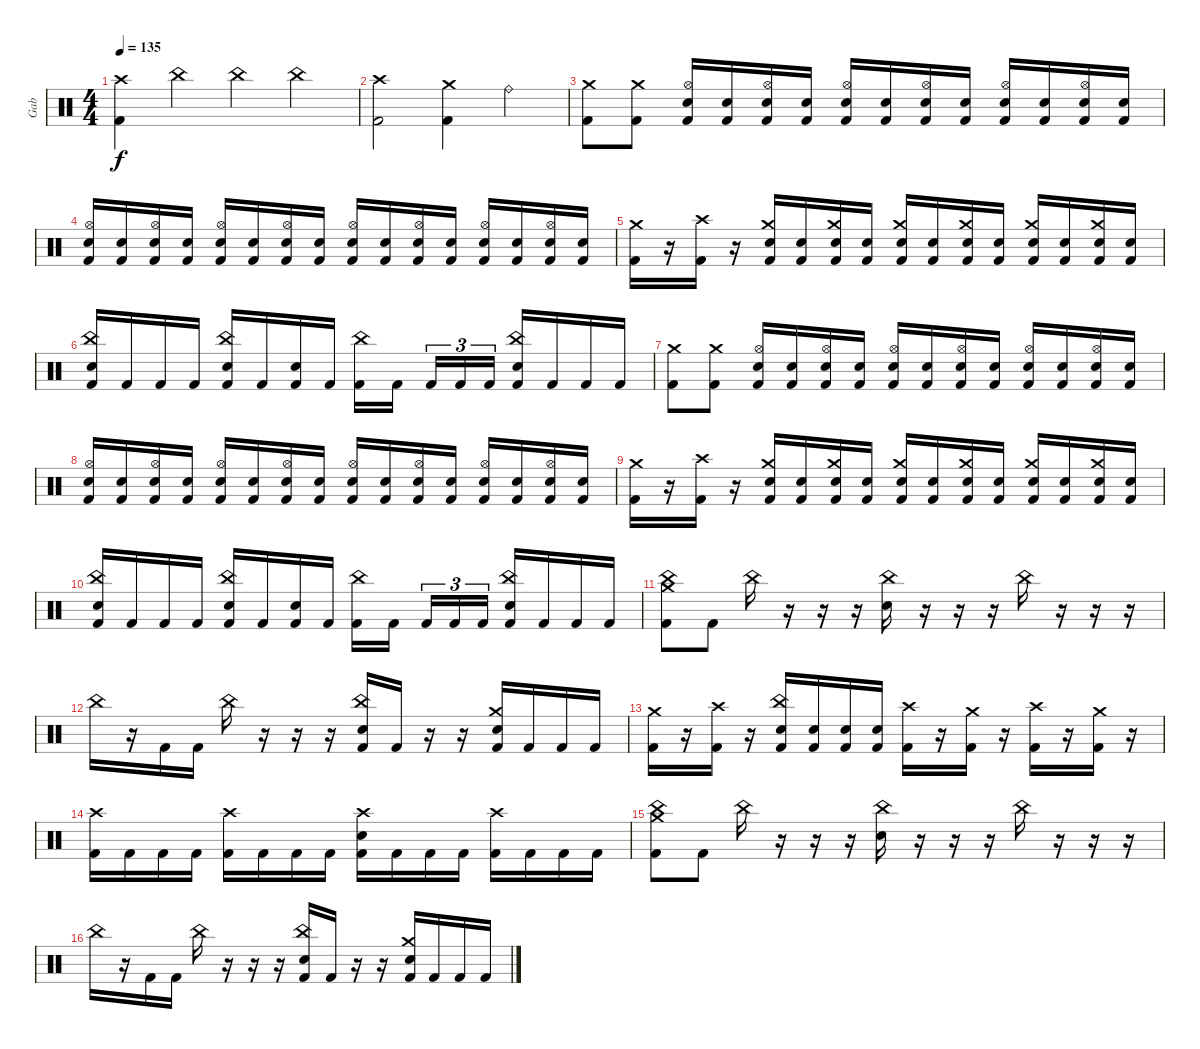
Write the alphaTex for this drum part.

\track ("Gab" "Gab") {instrument percussion}
\staff {score}
\articulation defaults
\ts (4 4)
\tempo 135
\clef neutral
\ks c
("Crash high (hit)" "Kick (hit) 2").4{dy f} "China (hit)".4 "China (hit)".4 "China (hit)".4 |
("Crash high (hit)" "Kick (hit) 2").2 ("Crash medium (hit)" "Kick (hit) 2").4 "Ride (bell)".4 |
("Crash medium (hit)" "Kick (hit) 2").8 ("Crash medium (hit)" "Kick (hit) 2").8 ("Hi-Hat (open)" "Electric Snare (hit)" "Kick (hit) 2").16 ("Electric Snare (hit)" "Kick (hit) 2").16 ("Hi-Hat (open)" "Electric Snare (hit)" "Kick (hit) 2").16 ("Electric Snare (hit)" "Kick (hit) 2").16 ("Hi-Hat (open)" "Electric Snare (hit)" "Kick (hit) 2").16 ("Electric Snare (hit)" "Kick (hit) 2").16 ("Hi-Hat (open)" "Electric Snare (hit)" "Kick (hit) 2").16 ("Electric Snare (hit)" "Kick (hit) 2").16 ("Hi-Hat (open)" "Electric Snare (hit)" "Kick (hit) 2").16 ("Electric Snare (hit)" "Kick (hit) 2").16 ("Hi-Hat (open)" "Electric Snare (hit)" "Kick (hit) 2").16 ("Electric Snare (hit)" "Kick (hit) 2").16 |
("Hi-Hat (open)" "Electric Snare (hit)" "Kick (hit) 2").16 ("Electric Snare (hit)" "Kick (hit) 2").16 ("Hi-Hat (open)" "Electric Snare (hit)" "Kick (hit) 2").16 ("Electric Snare (hit)" "Kick (hit) 2").16 ("Hi-Hat (open)" "Electric Snare (hit)" "Kick (hit) 2").16 ("Electric Snare (hit)" "Kick (hit) 2").16 ("Hi-Hat (open)" "Electric Snare (hit)" "Kick (hit) 2").16 ("Electric Snare (hit)" "Kick (hit) 2").16 ("Hi-Hat (open)" "Electric Snare (hit)" "Kick (hit) 2").16 ("Electric Snare (hit)" "Kick (hit) 2").16 ("Hi-Hat (open)" "Electric Snare (hit)" "Kick (hit) 2").16 ("Electric Snare (hit)" "Kick (hit) 2").16 ("Hi-Hat (open)" "Electric Snare (hit)" "Kick (hit) 2").16 ("Electric Snare (hit)" "Kick (hit) 2").16 ("Hi-Hat (open)" "Electric Snare (hit)" "Kick (hit) 2").16 ("Electric Snare (hit)" "Kick (hit) 2").16 |
("Crash medium (hit)" "Kick (hit) 2").16 r.16 ("Crash high (hit)" "Kick (hit) 2").16 r.16 ("Crash medium (hit)" "Electric Snare (hit)" "Kick (hit) 2").16 ("Electric Snare (hit)" "Kick (hit) 2").16 ("Crash medium (hit)" "Electric Snare (hit)" "Kick (hit) 2").16 ("Electric Snare (hit)" "Kick (hit) 2").16 ("Crash medium (hit)" "Electric Snare (hit)" "Kick (hit) 2").16 ("Electric Snare (hit)" "Kick (hit) 2").16 ("Crash medium (hit)" "Electric Snare (hit)" "Kick (hit) 2").16 ("Electric Snare (hit)" "Kick (hit) 2").16 ("Crash medium (hit)" "Electric Snare (hit)" "Kick (hit) 2").16 ("Electric Snare (hit)" "Kick (hit) 2").16 ("Crash medium (hit)" "Electric Snare (hit)" "Kick (hit) 2").16 ("Electric Snare (hit)" "Kick (hit) 2").16 |
("China (hit)" "Electric Snare (hit)" "Kick (hit) 2").16 "Kick (hit) 2".16 "Kick (hit) 2".16 "Kick (hit) 2".16 ("China (hit)" "Electric Snare (hit)" "Kick (hit) 2").16 "Kick (hit) 2".16 ("Electric Snare (hit)" "Kick (hit) 2").16 "Kick (hit) 2".16 ("China (hit)" "Kick (hit) 2").16 "Kick (hit) 2".16{beam splitsecondary} "Kick (hit) 2".16{tu (3 2)} "Kick (hit) 2".16{tu (3 2)} "Kick (hit) 2".16{tu (3 2)} ("China (hit)" "Electric Snare (hit)" "Kick (hit) 2").16 "Kick (hit) 2".16 "Kick (hit) 2".16 "Kick (hit) 2".16 |
("Crash medium (hit)" "Kick (hit) 2").8 ("Crash medium (hit)" "Kick (hit) 2").8 ("Hi-Hat (open)" "Electric Snare (hit)" "Kick (hit) 2").16 ("Electric Snare (hit)" "Kick (hit) 2").16 ("Hi-Hat (open)" "Electric Snare (hit)" "Kick (hit) 2").16 ("Electric Snare (hit)" "Kick (hit) 2").16 ("Hi-Hat (open)" "Electric Snare (hit)" "Kick (hit) 2").16 ("Electric Snare (hit)" "Kick (hit) 2").16 ("Hi-Hat (open)" "Electric Snare (hit)" "Kick (hit) 2").16 ("Electric Snare (hit)" "Kick (hit) 2").16 ("Hi-Hat (open)" "Electric Snare (hit)" "Kick (hit) 2").16 ("Electric Snare (hit)" "Kick (hit) 2").16 ("Hi-Hat (open)" "Electric Snare (hit)" "Kick (hit) 2").16 ("Electric Snare (hit)" "Kick (hit) 2").16 |
("Hi-Hat (open)" "Electric Snare (hit)" "Kick (hit) 2").16 ("Electric Snare (hit)" "Kick (hit) 2").16 ("Hi-Hat (open)" "Electric Snare (hit)" "Kick (hit) 2").16 ("Electric Snare (hit)" "Kick (hit) 2").16 ("Hi-Hat (open)" "Electric Snare (hit)" "Kick (hit) 2").16 ("Electric Snare (hit)" "Kick (hit) 2").16 ("Hi-Hat (open)" "Electric Snare (hit)" "Kick (hit) 2").16 ("Electric Snare (hit)" "Kick (hit) 2").16 ("Hi-Hat (open)" "Electric Snare (hit)" "Kick (hit) 2").16 ("Electric Snare (hit)" "Kick (hit) 2").16 ("Hi-Hat (open)" "Electric Snare (hit)" "Kick (hit) 2").16 ("Electric Snare (hit)" "Kick (hit) 2").16 ("Hi-Hat (open)" "Electric Snare (hit)" "Kick (hit) 2").16 ("Electric Snare (hit)" "Kick (hit) 2").16 ("Hi-Hat (open)" "Electric Snare (hit)" "Kick (hit) 2").16 ("Electric Snare (hit)" "Kick (hit) 2").16 |
("Crash medium (hit)" "Kick (hit) 2").16 r.16 ("Crash high (hit)" "Kick (hit) 2").16 r.16 ("Crash medium (hit)" "Electric Snare (hit)" "Kick (hit) 2").16 ("Electric Snare (hit)" "Kick (hit) 2").16 ("Crash medium (hit)" "Electric Snare (hit)" "Kick (hit) 2").16 ("Electric Snare (hit)" "Kick (hit) 2").16 ("Crash medium (hit)" "Electric Snare (hit)" "Kick (hit) 2").16 ("Electric Snare (hit)" "Kick (hit) 2").16 ("Crash medium (hit)" "Electric Snare (hit)" "Kick (hit) 2").16 ("Electric Snare (hit)" "Kick (hit) 2").16 ("Crash medium (hit)" "Electric Snare (hit)" "Kick (hit) 2").16 ("Electric Snare (hit)" "Kick (hit) 2").16 ("Crash medium (hit)" "Electric Snare (hit)" "Kick (hit) 2").16 ("Electric Snare (hit)" "Kick (hit) 2").16 |
("China (hit)" "Electric Snare (hit)" "Kick (hit) 2").16 "Kick (hit) 2".16 "Kick (hit) 2".16 "Kick (hit) 2".16 ("China (hit)" "Electric Snare (hit)" "Kick (hit) 2").16 "Kick (hit) 2".16 ("Electric Snare (hit)" "Kick (hit) 2").16 "Kick (hit) 2".16 ("China (hit)" "Kick (hit) 2").16 "Kick (hit) 2".16{beam splitsecondary} "Kick (hit) 2".16{tu (3 2)} "Kick (hit) 2".16{tu (3 2)} "Kick (hit) 2".16{tu (3 2)} ("China (hit)" "Electric Snare (hit)" "Kick (hit) 2").16 "Kick (hit) 2".16 "Kick (hit) 2".16 "Kick (hit) 2".16 |
("Crash medium (hit)" "China (hit)" "Kick (hit) 2").8 "Kick (hit) 2".8 "China (hit)".16 r.16 r.16 r.16 ("China (hit)" "Electric Snare (hit)").16 r.16 r.16 r.16 "China (hit)".16 r.16 r.16 r.16 |
"China (hit)".16 r.16 "Kick (hit) 2".16 "Kick (hit) 2".16 "China (hit)".16 r.16 r.16 r.16 ("China (hit)" "Electric Snare (hit)" "Kick (hit) 2").16 "Kick (hit) 2".16 r.16 r.16 ("Crash medium (hit)" "Electric Snare (hit)" "Kick (hit) 2").16 "Kick (hit) 2".16 "Kick (hit) 2".16 "Kick (hit) 2".16 |
("Crash medium (hit)" "Kick (hit) 2").16 r.16 ("Crash high (hit)" "Kick (hit) 2").16 r.16 ("China (hit)" "Electric Snare (hit)" "Kick (hit) 2").16 ("Electric Snare (hit)" "Kick (hit) 2").16 ("Electric Snare (hit)" "Kick (hit) 2").16 ("Electric Snare (hit)" "Kick (hit) 2").16 ("Crash high (hit)" "Kick (hit) 2").16 r.16 ("Crash medium (hit)" "Kick (hit) 2").16 r.16 ("Crash high (hit)" "Kick (hit) 2").16 r.16 ("Crash medium (hit)" "Kick (hit) 2").16 r.16 |
("Crash high (hit)" "Kick (hit) 2").16 "Kick (hit) 2".16 "Kick (hit) 2".16 "Kick (hit) 2".16 ("Crash high (hit)" "Kick (hit) 2").16 "Kick (hit) 2".16 "Kick (hit) 2".16 "Kick (hit) 2".16 ("Crash high (hit)" "Electric Snare (hit)" "Kick (hit) 2").16 "Kick (hit) 2".16 "Kick (hit) 2".16 "Kick (hit) 2".16 ("Crash high (hit)" "Kick (hit) 2").16 "Kick (hit) 2".16 "Kick (hit) 2".16 "Kick (hit) 2".16 |
("Crash medium (hit)" "China (hit)" "Kick (hit) 2").8 "Kick (hit) 2".8 "China (hit)".16 r.16 r.16 r.16 ("China (hit)" "Electric Snare (hit)").16 r.16 r.16 r.16 "China (hit)".16 r.16 r.16 r.16 |
"China (hit)".16 r.16 "Kick (hit) 2".16 "Kick (hit) 2".16 "China (hit)".16 r.16 r.16 r.16 ("China (hit)" "Electric Snare (hit)" "Kick (hit) 2").16 "Kick (hit) 2".16 r.16 r.16 ("Crash medium (hit)" "Electric Snare (hit)" "Kick (hit) 2").16 "Kick (hit) 2".16 "Kick (hit) 2".16 "Kick (hit) 2".16
